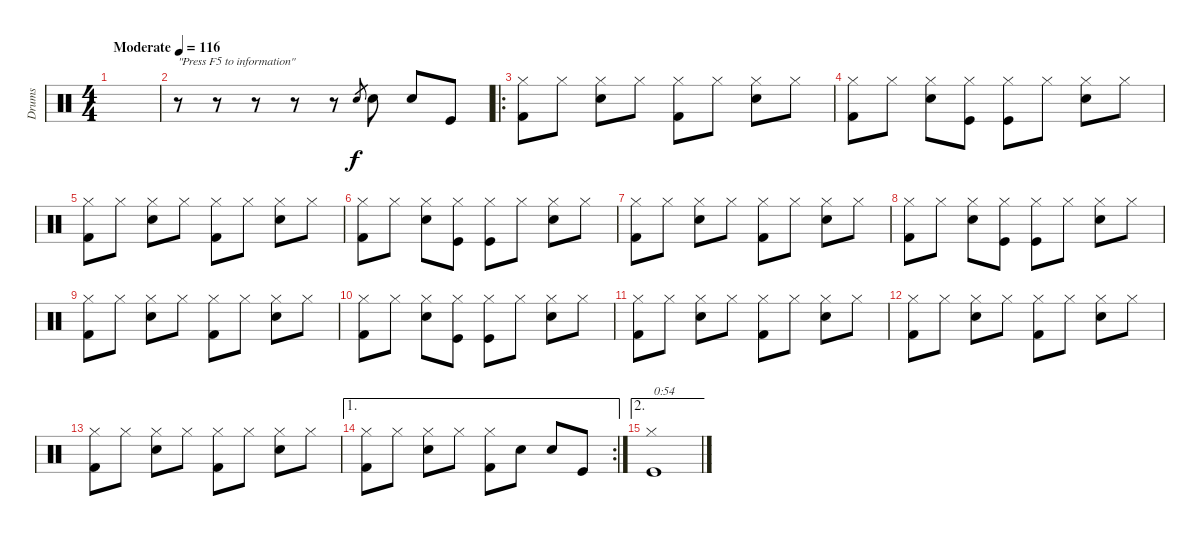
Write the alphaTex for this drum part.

\track ("Drums" "Drums") {instrument percussion}
\staff {score}
\articulation defaults
\ts (4 4)
\tempo (116 "Moderate")
\clef neutral
\ks c
|
r.8{txt "\"Press F5 to information\""} r.8 r.8 r.8 r.8 "Electric Snare (hit)"{h}.8{gr} "Electric Snare (hit)".8 "Electric Snare (hit)".8 "Kick (hit)".8 |
\ro
("Hi-Hat (closed)" "Kick (hit) 2").8 "Hi-Hat (closed)".8 ("Hi-Hat (closed)" "Electric Snare (hit)").8 "Hi-Hat (closed)".8 ("Hi-Hat (closed)" "Kick (hit) 2").8 "Hi-Hat (closed)".8 ("Hi-Hat (closed)" "Electric Snare (hit)").8 "Hi-Hat (closed)".8 |
("Hi-Hat (closed)" "Kick (hit) 2").8 "Hi-Hat (closed)".8 ("Hi-Hat (closed)" "Electric Snare (hit)").8 ("Hi-Hat (closed)" "Kick (hit)").8 ("Hi-Hat (closed)" "Kick (hit)").8 "Hi-Hat (closed)".8 ("Hi-Hat (closed)" "Electric Snare (hit)").8 "Hi-Hat (closed)".8 |
("Hi-Hat (closed)" "Kick (hit) 2").8 "Hi-Hat (closed)".8 ("Hi-Hat (closed)" "Electric Snare (hit)").8 "Hi-Hat (closed)".8 ("Hi-Hat (closed)" "Kick (hit) 2").8 "Hi-Hat (closed)".8 ("Hi-Hat (closed)" "Electric Snare (hit)").8 "Hi-Hat (closed)".8 |
("Hi-Hat (closed)" "Kick (hit) 2").8 "Hi-Hat (closed)".8 ("Hi-Hat (closed)" "Electric Snare (hit)").8 ("Hi-Hat (closed)" "Kick (hit)").8 ("Hi-Hat (closed)" "Kick (hit)").8 "Hi-Hat (closed)".8 ("Hi-Hat (closed)" "Electric Snare (hit)").8 "Hi-Hat (closed)".8 |
("Hi-Hat (closed)" "Kick (hit) 2").8 "Hi-Hat (closed)".8 ("Hi-Hat (closed)" "Electric Snare (hit)").8 "Hi-Hat (closed)".8 ("Hi-Hat (closed)" "Kick (hit) 2").8 "Hi-Hat (closed)".8 ("Hi-Hat (closed)" "Electric Snare (hit)").8 "Hi-Hat (closed)".8 |
("Hi-Hat (closed)" "Kick (hit) 2").8 "Hi-Hat (closed)".8 ("Hi-Hat (closed)" "Electric Snare (hit)").8 ("Hi-Hat (closed)" "Kick (hit)").8 ("Hi-Hat (closed)" "Kick (hit)").8 "Hi-Hat (closed)".8 ("Hi-Hat (closed)" "Electric Snare (hit)").8 "Hi-Hat (closed)".8 |
("Hi-Hat (closed)" "Kick (hit) 2").8 "Hi-Hat (closed)".8 ("Hi-Hat (closed)" "Electric Snare (hit)").8 "Hi-Hat (closed)".8 ("Hi-Hat (closed)" "Kick (hit) 2").8 "Hi-Hat (closed)".8 ("Hi-Hat (closed)" "Electric Snare (hit)").8 "Hi-Hat (closed)".8 |
("Hi-Hat (closed)" "Kick (hit) 2").8 "Hi-Hat (closed)".8 ("Hi-Hat (closed)" "Electric Snare (hit)").8 ("Hi-Hat (closed)" "Kick (hit)").8 ("Hi-Hat (closed)" "Kick (hit)").8 "Hi-Hat (closed)".8 ("Hi-Hat (closed)" "Electric Snare (hit)").8 "Hi-Hat (closed)".8 |
("Hi-Hat (closed)" "Kick (hit) 2").8 "Hi-Hat (closed)".8 ("Hi-Hat (closed)" "Electric Snare (hit)").8 "Hi-Hat (closed)".8 ("Hi-Hat (closed)" "Kick (hit) 2").8 "Hi-Hat (closed)".8 ("Hi-Hat (closed)" "Electric Snare (hit)").8 "Hi-Hat (closed)".8 |
("Hi-Hat (closed)" "Kick (hit) 2").8 "Hi-Hat (closed)".8 ("Hi-Hat (closed)" "Electric Snare (hit)").8 "Hi-Hat (closed)".8 ("Hi-Hat (closed)" "Kick (hit) 2").8 "Hi-Hat (closed)".8 ("Hi-Hat (closed)" "Electric Snare (hit)").8 "Hi-Hat (closed)".8 |
("Hi-Hat (closed)" "Kick (hit) 2").8 "Hi-Hat (closed)".8 ("Hi-Hat (closed)" "Electric Snare (hit)").8 "Hi-Hat (closed)".8 ("Hi-Hat (closed)" "Kick (hit) 2").8 "Hi-Hat (closed)".8 ("Hi-Hat (closed)" "Electric Snare (hit)").8 "Hi-Hat (closed)".8 |
\ae 1
\rc 2
("Hi-Hat (closed)" "Kick (hit) 2").8 "Hi-Hat (closed)".8 ("Hi-Hat (closed)" "Electric Snare (hit)").8 "Hi-Hat (closed)".8 ("Hi-Hat (closed)" "Kick (hit) 2").8 "Electric Snare (hit)".8 "Electric Snare (hit)".8 "Kick (hit)".8 |
\ae 2
("Hi-Hat (closed)" "Kick (hit)").1{txt "0:54"}
